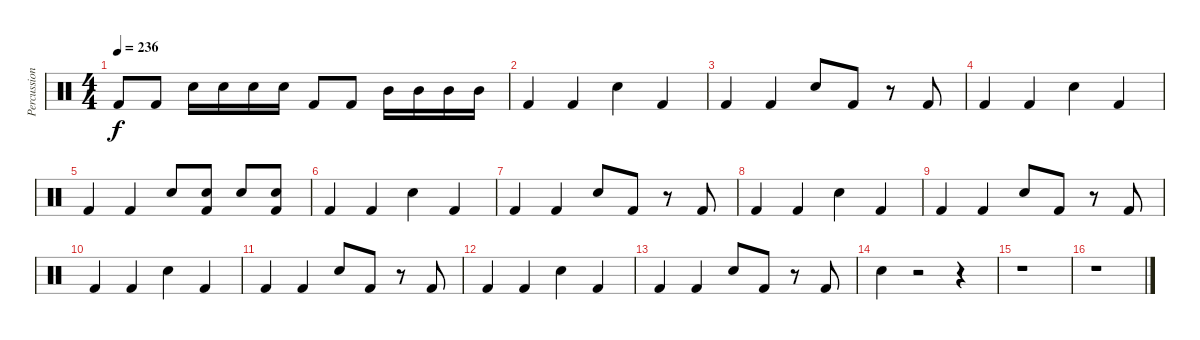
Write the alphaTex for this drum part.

\track ("Percussions" "Percussion") {instrument percussion}
\staff {score}
\articulation defaults
\ts (4 4)
\tempo 236
\clef neutral
\ks c "Kick (hit) 2".8{dy f} "Kick (hit) 2".8 "Snare (hit) 2".16 "Snare (hit) 2".16 "Snare (hit) 2".16 "Snare (hit) 2".16 "Kick (hit) 2".8 "Kick (hit) 2".8 "Mid Tom (hit)".16 "Mid Tom (hit)".16 "Mid Tom (hit)".16 "Mid Tom (hit)".16
|
"Kick (hit) 2".4 "Kick (hit) 2".4 "Snare (hit) 2".4 "Kick (hit) 2".4 |
"Kick (hit) 2".4 "Kick (hit) 2".4 "Snare (hit) 2".8 "Kick (hit) 2".8 r.8 "Kick (hit) 2".8 |
"Kick (hit) 2".4 "Kick (hit) 2".4 "Snare (hit) 2".4 "Kick (hit) 2".4 |
"Kick (hit) 2".4 "Kick (hit) 2".4 "Snare (hit) 2".8 ("Snare (hit) 2" "Kick (hit) 2").8 "Snare (hit) 2".8 ("Snare (hit) 2" "Kick (hit) 2").8 |
"Kick (hit) 2".4 "Kick (hit) 2".4 "Snare (hit) 2".4 "Kick (hit) 2".4 |
"Kick (hit) 2".4 "Kick (hit) 2".4 "Snare (hit) 2".8 "Kick (hit) 2".8 r.8 "Kick (hit) 2".8 |
"Kick (hit) 2".4 "Kick (hit) 2".4 "Snare (hit) 2".4 "Kick (hit) 2".4 |
"Kick (hit) 2".4 "Kick (hit) 2".4 "Snare (hit) 2".8 "Kick (hit) 2".8 r.8 "Kick (hit) 2".8 |
"Kick (hit) 2".4 "Kick (hit) 2".4 "Snare (hit) 2".4 "Kick (hit) 2".4 |
"Kick (hit) 2".4 "Kick (hit) 2".4 "Snare (hit) 2".8 "Kick (hit) 2".8 r.8 "Kick (hit) 2".8 |
"Kick (hit) 2".4 "Kick (hit) 2".4 "Snare (hit) 2".4 "Kick (hit) 2".4 |
"Kick (hit) 2".4 "Kick (hit) 2".4 "Snare (hit) 2".8 "Kick (hit) 2".8 r.8 "Kick (hit) 2".8 |
"Snare (hit) 2".4 r.2 r.4 |
r.1 |
r.1
